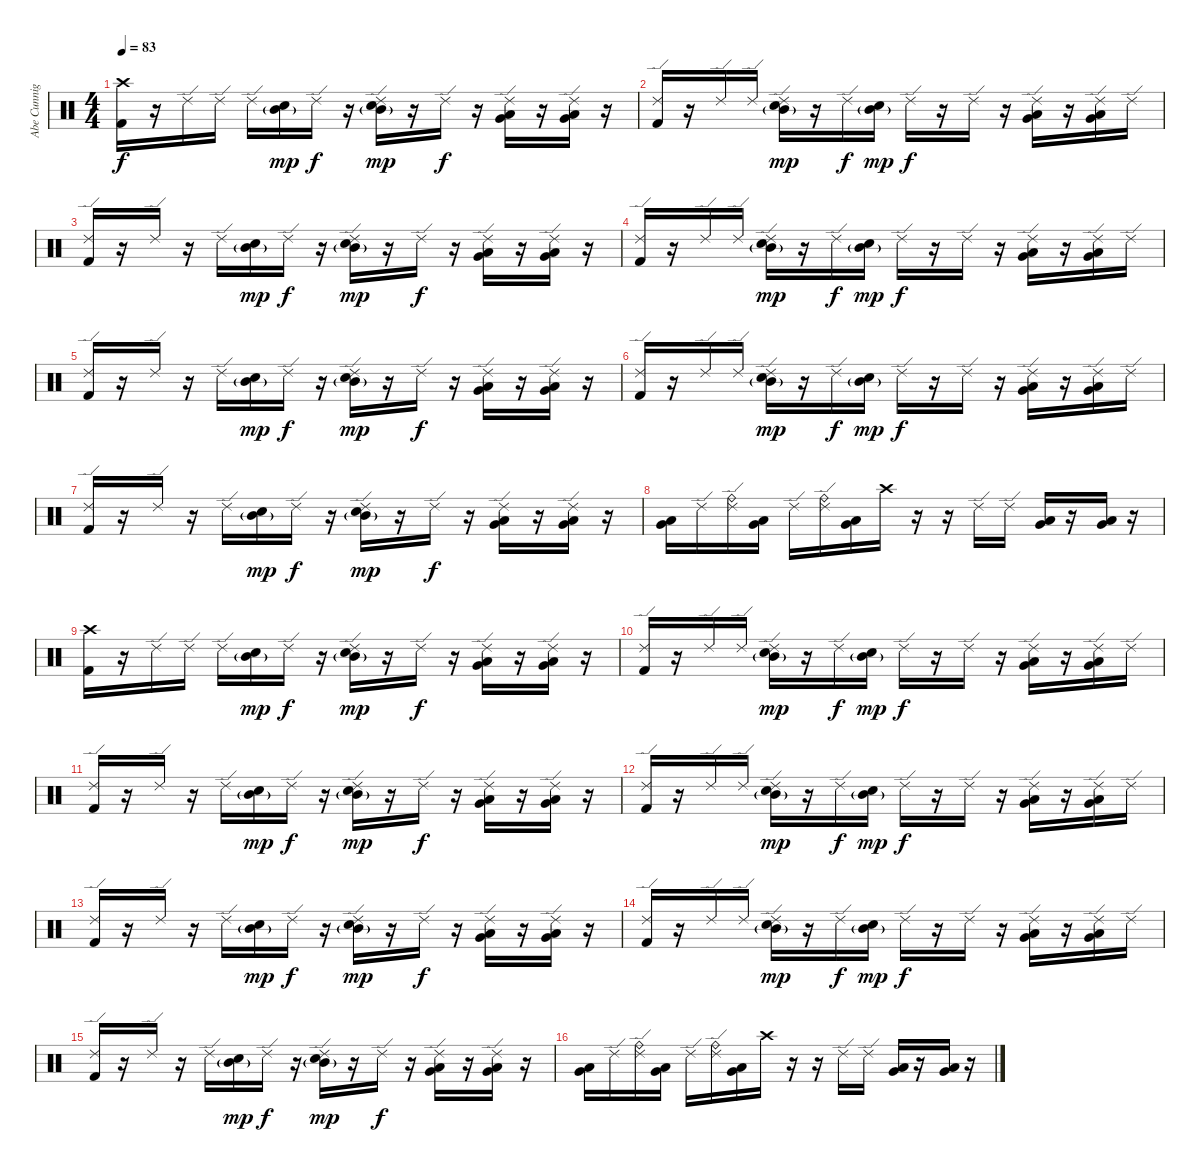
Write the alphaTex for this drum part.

\track ("Abe Cunnigham" "Abe Cunnig") {instrument percussion}
\staff {score}
\articulation defaults
\ts (4 4)
\tempo 83
\clef neutral
\ks c
("Crash high (hit)" "Kick (hit) 2").16{dy f} r.16 "Ride (edge) 2".16 "Ride (edge) 2".16 "Ride (edge) 2".16 ("Mid Tom (hit)"{g} "Electric Snare (hit)").16{dy mp} "Ride (edge) 2".16{dy f} r.16 ("Ride (edge) 2" "Mid Tom (hit)"{g} "Electric Snare (hit)").16{dy mp} r.16 "Ride (edge) 2".16{dy f} r.16 ("Ride (edge) 2" "Very Low Tom (hit)" "Low Tom (hit)").16 r.16 ("Ride (edge) 2" "Very Low Tom (hit)" "Low Tom (hit)").16 r.16 |
("Ride (edge) 2" "Kick (hit) 2").16 r.16 "Ride (edge) 2".16 "Ride (edge) 2".16 ("Ride (edge) 2" "Mid Tom (hit)"{g} "Electric Snare (hit)").16{dy mp} r.16 "Ride (edge) 2".16{dy f} ("Mid Tom (hit)"{g} "Electric Snare (hit)").16{dy mp} "Ride (edge) 2".16{dy f} r.16 "Ride (edge) 2".16 r.16 ("Ride (edge) 2" "Very Low Tom (hit)" "Low Tom (hit)").16 r.16 ("Ride (edge) 2" "Very Low Tom (hit)" "Low Tom (hit)").16 "Ride (edge) 2".16 |
("Ride (edge) 2" "Kick (hit) 2").16 r.16 "Ride (edge) 2".16 r.16 "Ride (edge) 2".16 ("Mid Tom (hit)"{g} "Electric Snare (hit)").16{dy mp} "Ride (edge) 2".16{dy f} r.16 ("Ride (edge) 2" "Mid Tom (hit)"{g} "Electric Snare (hit)").16{dy mp} r.16 "Ride (edge) 2".16{dy f} r.16 ("Ride (edge) 2" "Very Low Tom (hit)" "Low Tom (hit)").16 r.16 ("Ride (edge) 2" "Very Low Tom (hit)" "Low Tom (hit)").16 r.16 |
("Ride (edge) 2" "Kick (hit) 2").16 r.16 "Ride (edge) 2".16 "Ride (edge) 2".16 ("Ride (edge) 2" "Mid Tom (hit)"{g} "Electric Snare (hit)").16{dy mp} r.16 "Ride (edge) 2".16{dy f} ("Mid Tom (hit)"{g} "Electric Snare (hit)").16{dy mp} "Ride (edge) 2".16{dy f} r.16 "Ride (edge) 2".16 r.16 ("Ride (edge) 2" "Very Low Tom (hit)" "Low Tom (hit)").16 r.16 ("Ride (edge) 2" "Very Low Tom (hit)" "Low Tom (hit)").16 "Ride (edge) 2".16 |
("Ride (edge) 2" "Kick (hit) 2").16 r.16 "Ride (edge) 2".16 r.16 "Ride (edge) 2".16 ("Mid Tom (hit)"{g} "Electric Snare (hit)").16{dy mp} "Ride (edge) 2".16{dy f} r.16 ("Ride (edge) 2" "Mid Tom (hit)"{g} "Electric Snare (hit)").16{dy mp} r.16 "Ride (edge) 2".16{dy f} r.16 ("Ride (edge) 2" "Very Low Tom (hit)" "Low Tom (hit)").16 r.16 ("Ride (edge) 2" "Very Low Tom (hit)" "Low Tom (hit)").16 r.16 |
("Ride (edge) 2" "Kick (hit) 2").16 r.16 "Ride (edge) 2".16 "Ride (edge) 2".16 ("Ride (edge) 2" "Mid Tom (hit)"{g} "Electric Snare (hit)").16{dy mp} r.16 "Ride (edge) 2".16{dy f} ("Mid Tom (hit)"{g} "Electric Snare (hit)").16{dy mp} "Ride (edge) 2".16{dy f} r.16 "Ride (edge) 2".16 r.16 ("Ride (edge) 2" "Very Low Tom (hit)" "Low Tom (hit)").16 r.16 ("Ride (edge) 2" "Very Low Tom (hit)" "Low Tom (hit)").16 "Ride (edge) 2".16 |
("Ride (edge) 2" "Kick (hit) 2").16 r.16 "Ride (edge) 2".16 r.16 "Ride (edge) 2".16 ("Mid Tom (hit)"{g} "Electric Snare (hit)").16{dy mp} "Ride (edge) 2".16{dy f} r.16 ("Ride (edge) 2" "Mid Tom (hit)"{g} "Electric Snare (hit)").16{dy mp} r.16 "Ride (edge) 2".16{dy f} r.16 ("Ride (edge) 2" "Very Low Tom (hit)" "Low Tom (hit)").16 r.16 ("Ride (edge) 2" "Very Low Tom (hit)" "Low Tom (hit)").16 r.16 |
("Very Low Tom (hit)" "Low Tom (hit)").16 "Ride (edge) 2".16 ("Ride (bell)" "Ride (edge) 2").16 ("Very Low Tom (hit)" "Low Tom (hit)").16 "Ride (edge) 2".16 ("Ride (bell)" "Ride (edge) 2").16 ("Very Low Tom (hit)" "Low Tom (hit)").16 "Crash high (hit)".16 r.16 r.16 "Ride (edge) 2".16 "Ride (edge) 2".16 ("Very Low Tom (hit)" "Low Tom (hit)").16 r.16 ("Very Low Tom (hit)" "Low Tom (hit)").16 r.16 |
("Crash high (hit)" "Kick (hit) 2").16 r.16 "Ride (edge) 2".16 "Ride (edge) 2".16 "Ride (edge) 2".16 ("Mid Tom (hit)"{g} "Electric Snare (hit)").16{dy mp} "Ride (edge) 2".16{dy f} r.16 ("Ride (edge) 2" "Mid Tom (hit)"{g} "Electric Snare (hit)").16{dy mp} r.16 "Ride (edge) 2".16{dy f} r.16 ("Ride (edge) 2" "Very Low Tom (hit)" "Low Tom (hit)").16 r.16 ("Ride (edge) 2" "Very Low Tom (hit)" "Low Tom (hit)").16 r.16 |
("Ride (edge) 2" "Kick (hit) 2").16 r.16 "Ride (edge) 2".16 "Ride (edge) 2".16 ("Ride (edge) 2" "Mid Tom (hit)"{g} "Electric Snare (hit)").16{dy mp} r.16 "Ride (edge) 2".16{dy f} ("Mid Tom (hit)"{g} "Electric Snare (hit)").16{dy mp} "Ride (edge) 2".16{dy f} r.16 "Ride (edge) 2".16 r.16 ("Ride (edge) 2" "Very Low Tom (hit)" "Low Tom (hit)").16 r.16 ("Ride (edge) 2" "Very Low Tom (hit)" "Low Tom (hit)").16 "Ride (edge) 2".16 |
("Ride (edge) 2" "Kick (hit) 2").16 r.16 "Ride (edge) 2".16 r.16 "Ride (edge) 2".16 ("Mid Tom (hit)"{g} "Electric Snare (hit)").16{dy mp} "Ride (edge) 2".16{dy f} r.16 ("Ride (edge) 2" "Mid Tom (hit)"{g} "Electric Snare (hit)").16{dy mp} r.16 "Ride (edge) 2".16{dy f} r.16 ("Ride (edge) 2" "Very Low Tom (hit)" "Low Tom (hit)").16 r.16 ("Ride (edge) 2" "Very Low Tom (hit)" "Low Tom (hit)").16 r.16 |
("Ride (edge) 2" "Kick (hit) 2").16 r.16 "Ride (edge) 2".16 "Ride (edge) 2".16 ("Ride (edge) 2" "Mid Tom (hit)"{g} "Electric Snare (hit)").16{dy mp} r.16 "Ride (edge) 2".16{dy f} ("Mid Tom (hit)"{g} "Electric Snare (hit)").16{dy mp} "Ride (edge) 2".16{dy f} r.16 "Ride (edge) 2".16 r.16 ("Ride (edge) 2" "Very Low Tom (hit)" "Low Tom (hit)").16 r.16 ("Ride (edge) 2" "Very Low Tom (hit)" "Low Tom (hit)").16 "Ride (edge) 2".16 |
("Ride (edge) 2" "Kick (hit) 2").16 r.16 "Ride (edge) 2".16 r.16 "Ride (edge) 2".16 ("Mid Tom (hit)"{g} "Electric Snare (hit)").16{dy mp} "Ride (edge) 2".16{dy f} r.16 ("Ride (edge) 2" "Mid Tom (hit)"{g} "Electric Snare (hit)").16{dy mp} r.16 "Ride (edge) 2".16{dy f} r.16 ("Ride (edge) 2" "Very Low Tom (hit)" "Low Tom (hit)").16 r.16 ("Ride (edge) 2" "Very Low Tom (hit)" "Low Tom (hit)").16 r.16 |
("Ride (edge) 2" "Kick (hit) 2").16 r.16 "Ride (edge) 2".16 "Ride (edge) 2".16 ("Ride (edge) 2" "Mid Tom (hit)"{g} "Electric Snare (hit)").16{dy mp} r.16 "Ride (edge) 2".16{dy f} ("Mid Tom (hit)"{g} "Electric Snare (hit)").16{dy mp} "Ride (edge) 2".16{dy f} r.16 "Ride (edge) 2".16 r.16 ("Ride (edge) 2" "Very Low Tom (hit)" "Low Tom (hit)").16 r.16 ("Ride (edge) 2" "Very Low Tom (hit)" "Low Tom (hit)").16 "Ride (edge) 2".16 |
("Ride (edge) 2" "Kick (hit) 2").16 r.16 "Ride (edge) 2".16 r.16 "Ride (edge) 2".16 ("Mid Tom (hit)"{g} "Electric Snare (hit)").16{dy mp} "Ride (edge) 2".16{dy f} r.16 ("Ride (edge) 2" "Mid Tom (hit)"{g} "Electric Snare (hit)").16{dy mp} r.16 "Ride (edge) 2".16{dy f} r.16 ("Ride (edge) 2" "Very Low Tom (hit)" "Low Tom (hit)").16 r.16 ("Ride (edge) 2" "Very Low Tom (hit)" "Low Tom (hit)").16 r.16 |
("Very Low Tom (hit)" "Low Tom (hit)").16 "Ride (edge) 2".16 ("Ride (bell)" "Ride (edge) 2").16 ("Very Low Tom (hit)" "Low Tom (hit)").16 "Ride (edge) 2".16 ("Ride (bell)" "Ride (edge) 2").16 ("Very Low Tom (hit)" "Low Tom (hit)").16 "Crash high (hit)".16 r.16 r.16 "Ride (edge) 2".16 "Ride (edge) 2".16 ("Very Low Tom (hit)" "Low Tom (hit)").16 r.16 ("Very Low Tom (hit)" "Low Tom (hit)").16 r.16
